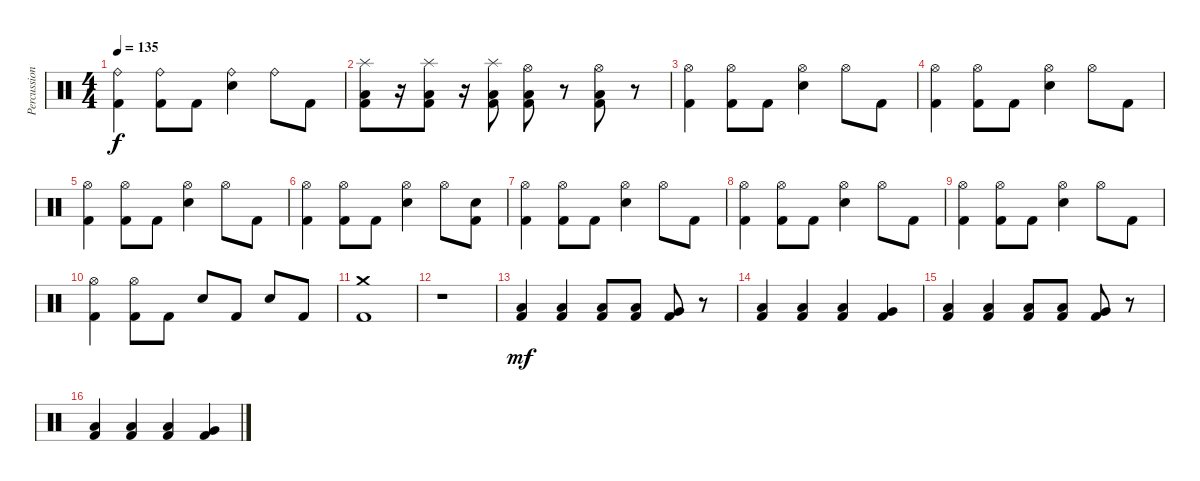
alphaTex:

\track ("Percussion" "Percussion") {instrument percussion}
\staff {score}
\articulation defaults
\ts (4 4)
\tempo 135
\clef neutral
\ks c
("Kick (hit) 2" "Ride (bell)").4{dy f} ("Kick (hit) 2" "Ride (bell)").8 "Kick (hit) 2".8 ("Snare (hit) 2" "Ride (bell)").4 "Ride (bell)".8 "Kick (hit) 2".8 |
("Kick (hit) 2" "Low Floor Tom (hit)" "Splash (hit)").8 r.16 ("Kick (hit) 2" "Low Floor Tom (hit)" "Splash (hit)").8 r.16 ("Kick (hit) 2" "Low Floor Tom (hit)" "Splash (hit)").8 ("Kick (hit) 2" "Low Floor Tom (hit)" "Hi-Hat (open)").8 r.8 ("Kick (hit) 2" "Low Floor Tom (hit)" "Hi-Hat (open)").8 r.8 |
("Kick (hit) 2" "Hi-Hat (open)").4 ("Kick (hit) 2" "Hi-Hat (open)").8 "Kick (hit) 2".8 ("Snare (hit) 2" "Hi-Hat (open)").4 "Hi-Hat (open)".8 "Kick (hit) 2".8 |
("Kick (hit) 2" "Hi-Hat (open)").4 ("Kick (hit) 2" "Hi-Hat (open)").8 "Kick (hit) 2".8 ("Snare (hit) 2" "Hi-Hat (open)").4 "Hi-Hat (open)".8 "Kick (hit) 2".8 |
("Kick (hit) 2" "Hi-Hat (open)").4 ("Kick (hit) 2" "Hi-Hat (open)").8 "Kick (hit) 2".8 ("Snare (hit) 2" "Hi-Hat (open)").4 "Hi-Hat (open)".8 "Kick (hit) 2".8 |
("Kick (hit) 2" "Hi-Hat (open)").4 ("Kick (hit) 2" "Hi-Hat (open)").8 "Kick (hit) 2".8 ("Snare (hit) 2" "Hi-Hat (open)").4 "Hi-Hat (open)".8 ("Kick (hit) 2" "Snare (hit) 2").8 |
("Kick (hit) 2" "Hi-Hat (open)").4 ("Kick (hit) 2" "Hi-Hat (open)").8 "Kick (hit) 2".8 ("Snare (hit) 2" "Hi-Hat (open)").4 "Hi-Hat (open)".8 "Kick (hit) 2".8 |
("Kick (hit) 2" "Hi-Hat (open)").4 ("Kick (hit) 2" "Hi-Hat (open)").8 "Kick (hit) 2".8 ("Snare (hit) 2" "Hi-Hat (open)").4 "Hi-Hat (open)".8 "Kick (hit) 2".8 |
("Kick (hit) 2" "Hi-Hat (open)").4 ("Kick (hit) 2" "Hi-Hat (open)").8 "Kick (hit) 2".8 ("Snare (hit) 2" "Hi-Hat (open)").4 "Hi-Hat (open)".8 "Kick (hit) 2".8 |
("Kick (hit) 2" "Hi-Hat (open)").4 ("Kick (hit) 2" "Hi-Hat (open)").8 "Kick (hit) 2".8 "Snare (hit) 2".8 "Kick (hit) 2".8 "Snare (hit) 2".8 "Kick (hit) 2".8 |
("Kick (hit) 2" "Crash medium (hit)").1 |
r.1 |
("Kick (hit) 2" "Low Floor Tom (hit)").4{dy mf} ("Kick (hit) 2" "Low Floor Tom (hit)").4 ("Kick (hit) 2" "Low Floor Tom (hit)").8 ("Kick (hit) 2" "Low Floor Tom (hit)").8 ("Kick (hit) 2" "Very Low Tom (hit)").8 r.8 |
("Kick (hit) 2" "Low Floor Tom (hit)").4 ("Kick (hit) 2" "Low Floor Tom (hit)").4 ("Kick (hit) 2" "Low Floor Tom (hit)").4 ("Kick (hit) 2" "Very Low Tom (hit)").4 |
("Kick (hit) 2" "Low Floor Tom (hit)").4 ("Kick (hit) 2" "Low Floor Tom (hit)").4 ("Kick (hit) 2" "Low Floor Tom (hit)").8 ("Kick (hit) 2" "Low Floor Tom (hit)").8 ("Kick (hit) 2" "Very Low Tom (hit)").8 r.8 |
("Kick (hit) 2" "Low Floor Tom (hit)").4 ("Kick (hit) 2" "Low Floor Tom (hit)").4 ("Kick (hit) 2" "Low Floor Tom (hit)").4 ("Kick (hit) 2" "Very Low Tom (hit)").4
